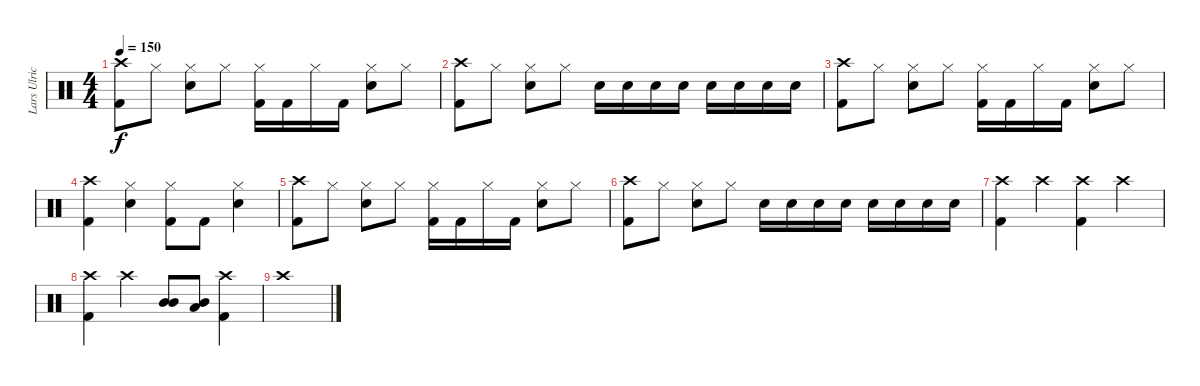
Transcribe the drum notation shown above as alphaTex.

\track ("Lars Ulrich" "Lars Ulric") {instrument percussion}
\staff {score}
\articulation defaults
\ts (4 4)
\tempo 150
\clef neutral
\ks c
("Crash high (hit)" "Kick (hit) 2").8{dy f} "Hi-Hat (closed)".8 ("Hi-Hat (closed)" "Snare (hit) 2").8 "Hi-Hat (closed)".8 ("Hi-Hat (closed)" "Kick (hit) 2").16 "Kick (hit) 2".16 "Hi-Hat (closed)".16 "Kick (hit) 2".16 ("Hi-Hat (closed)" "Snare (hit) 2").8 "Hi-Hat (closed)".8 |
("Crash high (hit)" "Kick (hit) 2").8 "Hi-Hat (closed)".8 ("Hi-Hat (closed)" "Snare (hit) 2").8 "Hi-Hat (closed)".8 "Snare (hit) 2".16 "Snare (hit) 2".16 "Snare (hit) 2".16 "Snare (hit) 2".16 "Snare (hit) 2".16 "Snare (hit) 2".16 "Snare (hit) 2".16 "Snare (hit) 2".16 |
("Crash high (hit)" "Kick (hit) 2").8 "Hi-Hat (closed)".8 ("Hi-Hat (closed)" "Snare (hit) 2").8 "Hi-Hat (closed)".8 ("Hi-Hat (closed)" "Kick (hit) 2").16 "Kick (hit) 2".16 "Hi-Hat (closed)".16 "Kick (hit) 2".16 ("Hi-Hat (closed)" "Snare (hit) 2").8 "Hi-Hat (closed)".8 |
("Crash high (hit)" "Kick (hit) 2").4 ("Hi-Hat (closed)" "Snare (hit) 2").4 ("Hi-Hat (closed)" "Kick (hit) 2").8 "Kick (hit) 2".8 ("Hi-Hat (closed)" "Snare (hit) 2").4 |
("Crash high (hit)" "Kick (hit) 2").8 "Hi-Hat (closed)".8 ("Hi-Hat (closed)" "Snare (hit) 2").8 "Hi-Hat (closed)".8 ("Hi-Hat (closed)" "Kick (hit) 2").16 "Kick (hit) 2".16 "Hi-Hat (closed)".16 "Kick (hit) 2".16 ("Hi-Hat (closed)" "Snare (hit) 2").8 "Hi-Hat (closed)".8 |
("Crash high (hit)" "Kick (hit) 2").8 "Hi-Hat (closed)".8 ("Hi-Hat (closed)" "Snare (hit) 2").8 "Hi-Hat (closed)".8 "Snare (hit) 2".16 "Snare (hit) 2".16 "Snare (hit) 2".16 "Snare (hit) 2".16 "Snare (hit) 2".16 "Snare (hit) 2".16 "Snare (hit) 2".16 "Snare (hit) 2".16 |
("Crash high (hit)" "Kick (hit) 2").4 "Crash high (hit)".4{volume 0} ("Crash high (hit)" "Kick (hit) 2").4{volume 16} "Crash high (hit)".4{volume 0} |
("Crash high (hit)" "Kick (hit) 2").4{volume 16} "Crash high (hit)".4{volume 0} ("Mid Tom (hit)" "Mid Tom (hit)").8{volume 16} ("Mid Tom (hit)" "Low Tom (hit)").8 ("Crash high (hit)" "Kick (hit) 2").4 |
"Crash high (hit)".1{volume 0}
